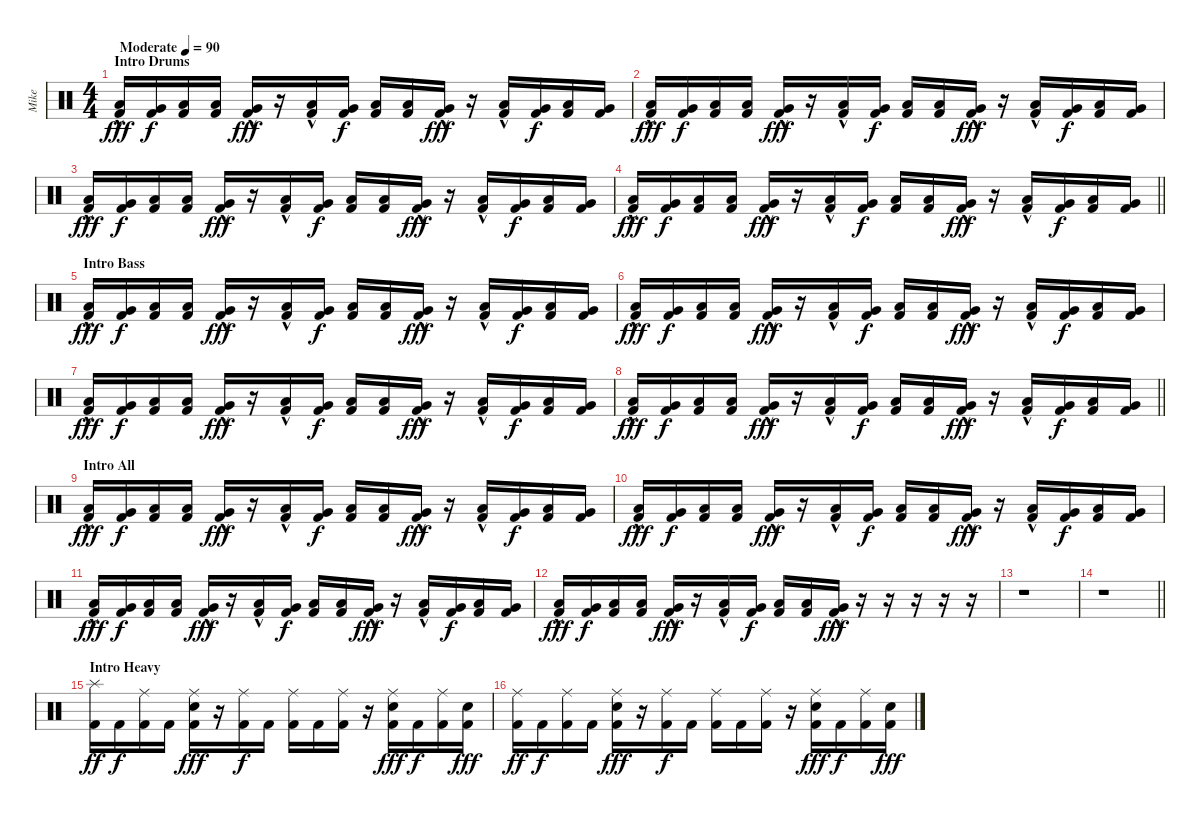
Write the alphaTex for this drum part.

\track ("Mike" "Mike") {instrument percussion}
\staff {score}
\articulation defaults
\ts (4 4)
\section ("" "Intro Drums")
\tempo (90 "Moderate")
\clef neutral
\ks c
("Low Tom (hit)"{hac} "Kick (hit) 2"{hac}).16{dy fff} ("Very Low Tom (hit)" "Kick (hit) 2").16{dy f} ("Low Floor Tom (hit)" "Kick (hit) 2").16 ("Low Tom (hit)" "Kick (hit) 2").16 ("Very Low Tom (hit)"{hac} "Kick (hit) 2"{hac}).16{dy fff} r.16 ("Low Tom (hit)"{hac} "Kick (hit) 2"{hac}).16 ("Very Low Tom (hit)" "Kick (hit) 2").16{dy f} ("Low Floor Tom (hit)" "Kick (hit) 2").16 ("Low Tom (hit)" "Kick (hit) 2").16 ("Very Low Tom (hit)"{hac} "Kick (hit) 2"{hac}).16{dy fff} r.16 ("Low Tom (hit)"{hac} "Kick (hit) 2"{hac}).16 ("Very Low Tom (hit)" "Kick (hit) 2").16{dy f} ("Low Floor Tom (hit)" "Kick (hit) 2").16 ("Very Low Tom (hit)" "Kick (hit) 2").16 |
("Low Tom (hit)"{hac} "Kick (hit) 2"{hac}).16{dy fff} ("Very Low Tom (hit)" "Kick (hit) 2").16{dy f} ("Low Floor Tom (hit)" "Kick (hit) 2").16 ("Low Tom (hit)" "Kick (hit) 2").16 ("Very Low Tom (hit)"{hac} "Kick (hit) 2"{hac}).16{dy fff} r.16 ("Low Tom (hit)"{hac} "Kick (hit) 2"{hac}).16 ("Very Low Tom (hit)" "Kick (hit) 2").16{dy f} ("Low Floor Tom (hit)" "Kick (hit) 2").16 ("Low Tom (hit)" "Kick (hit) 2").16 ("Very Low Tom (hit)"{hac} "Kick (hit) 2"{hac}).16{dy fff} r.16 ("Low Tom (hit)"{hac} "Kick (hit) 2"{hac}).16 ("Very Low Tom (hit)" "Kick (hit) 2").16{dy f} ("Low Floor Tom (hit)" "Kick (hit) 2").16 ("Very Low Tom (hit)" "Kick (hit) 2").16 |
("Low Tom (hit)"{hac} "Kick (hit) 2"{hac}).16{dy fff} ("Very Low Tom (hit)" "Kick (hit) 2").16{dy f} ("Low Floor Tom (hit)" "Kick (hit) 2").16 ("Low Tom (hit)" "Kick (hit) 2").16 ("Very Low Tom (hit)"{hac} "Kick (hit) 2"{hac}).16{dy fff} r.16 ("Low Tom (hit)"{hac} "Kick (hit) 2"{hac}).16 ("Very Low Tom (hit)" "Kick (hit) 2").16{dy f} ("Low Floor Tom (hit)" "Kick (hit) 2").16 ("Low Tom (hit)" "Kick (hit) 2").16 ("Very Low Tom (hit)"{hac} "Kick (hit) 2"{hac}).16{dy fff} r.16 ("Low Tom (hit)"{hac} "Kick (hit) 2"{hac}).16 ("Very Low Tom (hit)" "Kick (hit) 2").16{dy f} ("Low Floor Tom (hit)" "Kick (hit) 2").16 ("Very Low Tom (hit)" "Kick (hit) 2").16 |
\barLineRight lightlight
("Low Tom (hit)"{hac} "Kick (hit) 2"{hac}).16{dy fff} ("Very Low Tom (hit)" "Kick (hit) 2").16{dy f} ("Low Floor Tom (hit)" "Kick (hit) 2").16 ("Low Tom (hit)" "Kick (hit) 2").16 ("Very Low Tom (hit)"{hac} "Kick (hit) 2"{hac}).16{dy fff} r.16 ("Low Tom (hit)"{hac} "Kick (hit) 2"{hac}).16 ("Very Low Tom (hit)" "Kick (hit) 2").16{dy f} ("Low Floor Tom (hit)" "Kick (hit) 2").16 ("Low Tom (hit)" "Kick (hit) 2").16 ("Very Low Tom (hit)"{hac} "Kick (hit) 2"{hac}).16{dy fff} r.16 ("Low Tom (hit)"{hac} "Kick (hit) 2"{hac}).16 ("Very Low Tom (hit)" "Kick (hit) 2").16{dy f} ("Low Floor Tom (hit)" "Kick (hit) 2").16 ("Very Low Tom (hit)" "Kick (hit) 2").16 |
\section ("" "Intro Bass")
("Low Tom (hit)"{hac} "Kick (hit) 2"{hac}).16{dy fff} ("Very Low Tom (hit)" "Kick (hit) 2").16{dy f} ("Low Floor Tom (hit)" "Kick (hit) 2").16 ("Low Tom (hit)" "Kick (hit) 2").16 ("Very Low Tom (hit)"{hac} "Kick (hit) 2"{hac}).16{dy fff} r.16 ("Low Tom (hit)"{hac} "Kick (hit) 2"{hac}).16 ("Very Low Tom (hit)" "Kick (hit) 2").16{dy f} ("Low Floor Tom (hit)" "Kick (hit) 2").16 ("Low Tom (hit)" "Kick (hit) 2").16 ("Very Low Tom (hit)"{hac} "Kick (hit) 2"{hac}).16{dy fff} r.16 ("Low Tom (hit)"{hac} "Kick (hit) 2"{hac}).16 ("Very Low Tom (hit)" "Kick (hit) 2").16{dy f} ("Low Floor Tom (hit)" "Kick (hit) 2").16 ("Very Low Tom (hit)" "Kick (hit) 2").16 |
("Low Tom (hit)"{hac} "Kick (hit) 2"{hac}).16{dy fff} ("Very Low Tom (hit)" "Kick (hit) 2").16{dy f} ("Low Floor Tom (hit)" "Kick (hit) 2").16 ("Low Tom (hit)" "Kick (hit) 2").16 ("Very Low Tom (hit)"{hac} "Kick (hit) 2"{hac}).16{dy fff} r.16 ("Low Tom (hit)"{hac} "Kick (hit) 2"{hac}).16 ("Very Low Tom (hit)" "Kick (hit) 2").16{dy f} ("Low Floor Tom (hit)" "Kick (hit) 2").16 ("Low Tom (hit)" "Kick (hit) 2").16 ("Very Low Tom (hit)"{hac} "Kick (hit) 2"{hac}).16{dy fff} r.16 ("Low Tom (hit)"{hac} "Kick (hit) 2"{hac}).16 ("Very Low Tom (hit)" "Kick (hit) 2").16{dy f} ("Low Floor Tom (hit)" "Kick (hit) 2").16 ("Very Low Tom (hit)" "Kick (hit) 2").16 |
("Low Tom (hit)"{hac} "Kick (hit) 2"{hac}).16{dy fff} ("Very Low Tom (hit)" "Kick (hit) 2").16{dy f} ("Low Floor Tom (hit)" "Kick (hit) 2").16 ("Low Tom (hit)" "Kick (hit) 2").16 ("Very Low Tom (hit)"{hac} "Kick (hit) 2"{hac}).16{dy fff} r.16 ("Low Tom (hit)"{hac} "Kick (hit) 2"{hac}).16 ("Very Low Tom (hit)" "Kick (hit) 2").16{dy f} ("Low Floor Tom (hit)" "Kick (hit) 2").16 ("Low Tom (hit)" "Kick (hit) 2").16 ("Very Low Tom (hit)"{hac} "Kick (hit) 2"{hac}).16{dy fff} r.16 ("Low Tom (hit)"{hac} "Kick (hit) 2"{hac}).16 ("Very Low Tom (hit)" "Kick (hit) 2").16{dy f} ("Low Floor Tom (hit)" "Kick (hit) 2").16 ("Very Low Tom (hit)" "Kick (hit) 2").16 |
\barLineRight lightlight
("Low Tom (hit)"{hac} "Kick (hit) 2"{hac}).16{dy fff} ("Very Low Tom (hit)" "Kick (hit) 2").16{dy f} ("Low Floor Tom (hit)" "Kick (hit) 2").16 ("Low Tom (hit)" "Kick (hit) 2").16 ("Very Low Tom (hit)"{hac} "Kick (hit) 2"{hac}).16{dy fff} r.16 ("Low Tom (hit)"{hac} "Kick (hit) 2"{hac}).16 ("Very Low Tom (hit)" "Kick (hit) 2").16{dy f} ("Low Floor Tom (hit)" "Kick (hit) 2").16 ("Low Tom (hit)" "Kick (hit) 2").16 ("Very Low Tom (hit)"{hac} "Kick (hit) 2"{hac}).16{dy fff} r.16 ("Low Tom (hit)"{hac} "Kick (hit) 2"{hac}).16 ("Very Low Tom (hit)" "Kick (hit) 2").16{dy f} ("Low Floor Tom (hit)" "Kick (hit) 2").16 ("Very Low Tom (hit)" "Kick (hit) 2").16 |
\section ("" "Intro All")
("Low Tom (hit)"{hac} "Kick (hit) 2"{hac}).16{dy fff} ("Very Low Tom (hit)" "Kick (hit) 2").16{dy f} ("Low Floor Tom (hit)" "Kick (hit) 2").16 ("Low Tom (hit)" "Kick (hit) 2").16 ("Very Low Tom (hit)"{hac} "Kick (hit) 2"{hac}).16{dy fff} r.16 ("Low Tom (hit)"{hac} "Kick (hit) 2"{hac}).16 ("Very Low Tom (hit)" "Kick (hit) 2").16{dy f} ("Low Floor Tom (hit)" "Kick (hit) 2").16 ("Low Tom (hit)" "Kick (hit) 2").16 ("Very Low Tom (hit)"{hac} "Kick (hit) 2"{hac}).16{dy fff} r.16 ("Low Tom (hit)"{hac} "Kick (hit) 2"{hac}).16 ("Very Low Tom (hit)" "Kick (hit) 2").16{dy f} ("Low Floor Tom (hit)" "Kick (hit) 2").16 ("Very Low Tom (hit)" "Kick (hit) 2").16 |
("Low Tom (hit)"{hac} "Kick (hit) 2"{hac}).16{dy fff} ("Very Low Tom (hit)" "Kick (hit) 2").16{dy f} ("Low Floor Tom (hit)" "Kick (hit) 2").16 ("Low Tom (hit)" "Kick (hit) 2").16 ("Very Low Tom (hit)"{hac} "Kick (hit) 2"{hac}).16{dy fff} r.16 ("Low Tom (hit)"{hac} "Kick (hit) 2"{hac}).16 ("Very Low Tom (hit)" "Kick (hit) 2").16{dy f} ("Low Floor Tom (hit)" "Kick (hit) 2").16 ("Low Tom (hit)" "Kick (hit) 2").16 ("Very Low Tom (hit)"{hac} "Kick (hit) 2"{hac}).16{dy fff} r.16 ("Low Tom (hit)"{hac} "Kick (hit) 2"{hac}).16 ("Very Low Tom (hit)" "Kick (hit) 2").16{dy f} ("Low Floor Tom (hit)" "Kick (hit) 2").16 ("Very Low Tom (hit)" "Kick (hit) 2").16 |
("Low Tom (hit)"{hac} "Kick (hit) 2"{hac}).16{dy fff} ("Very Low Tom (hit)" "Kick (hit) 2").16{dy f} ("Low Floor Tom (hit)" "Kick (hit) 2").16 ("Low Tom (hit)" "Kick (hit) 2").16 ("Very Low Tom (hit)"{hac} "Kick (hit) 2"{hac}).16{dy fff} r.16 ("Low Tom (hit)"{hac} "Kick (hit) 2"{hac}).16 ("Very Low Tom (hit)" "Kick (hit) 2").16{dy f} ("Low Floor Tom (hit)" "Kick (hit) 2").16 ("Low Tom (hit)" "Kick (hit) 2").16 ("Very Low Tom (hit)"{hac} "Kick (hit) 2"{hac}).16{dy fff} r.16 ("Low Tom (hit)"{hac} "Kick (hit) 2"{hac}).16 ("Very Low Tom (hit)" "Kick (hit) 2").16{dy f} ("Low Floor Tom (hit)" "Kick (hit) 2").16 ("Very Low Tom (hit)" "Kick (hit) 2").16 |
("Low Tom (hit)"{hac} "Kick (hit) 2"{hac}).16{dy fff} ("Very Low Tom (hit)" "Kick (hit) 2").16{dy f} ("Low Floor Tom (hit)" "Kick (hit) 2").16 ("Low Tom (hit)" "Kick (hit) 2").16 ("Very Low Tom (hit)"{hac} "Kick (hit) 2"{hac}).16{dy fff} r.16 ("Low Tom (hit)"{hac} "Kick (hit) 2"{hac}).16 ("Very Low Tom (hit)" "Kick (hit) 2").16{dy f} ("Low Floor Tom (hit)" "Kick (hit) 2").16 ("Low Tom (hit)" "Kick (hit) 2").16 ("Very Low Tom (hit)"{hac} "Kick (hit) 2"{hac}).16{dy fff} r.16 r.16 r.16 r.16 r.16 |
r.1 |
\barLineRight lightlight
r.1 |
\section ("" "Intro Heavy")
("Splash (hit)" "Kick (hit) 2").16{dy ff} "Kick (hit) 2".16{dy f} ("Ride (middle)" "Kick (hit) 2").16 "Kick (hit) 2".16 ("Ride (middle)" "Snare (hit) 2" "Kick (hit) 2").16{dy fff} r.16 ("Ride (middle)" "Kick (hit) 2").16{dy f} "Kick (hit) 2".16 ("Ride (middle)" "Kick (hit) 2").16 "Kick (hit) 2".16 ("Ride (middle)" "Kick (hit) 2").16 r.16 ("Ride (middle)" "Snare (hit) 2" "Kick (hit) 2").16{dy fff} "Kick (hit) 2".16{dy f} ("Ride (middle)" "Kick (hit) 2").16 ("Snare (hit) 2" "Kick (hit) 2").16{dy fff} |
("Ride (middle)" "Kick (hit) 2").16{dy ff} "Kick (hit) 2".16{dy f} ("Ride (middle)" "Kick (hit) 2").16 "Kick (hit) 2".16 ("Ride (middle)" "Snare (hit) 2" "Kick (hit) 2").16{dy fff} r.16 ("Ride (middle)" "Kick (hit) 2").16{dy f} "Kick (hit) 2".16 ("Ride (middle)" "Kick (hit) 2").16 "Kick (hit) 2".16 ("Ride (middle)" "Kick (hit) 2").16 r.16 ("Ride (middle)" "Snare (hit) 2" "Kick (hit) 2").16{dy fff} "Kick (hit) 2".16{dy f} ("Ride (middle)" "Kick (hit) 2").16 ("Snare (hit) 2" "Kick (hit) 2").16{dy fff}
